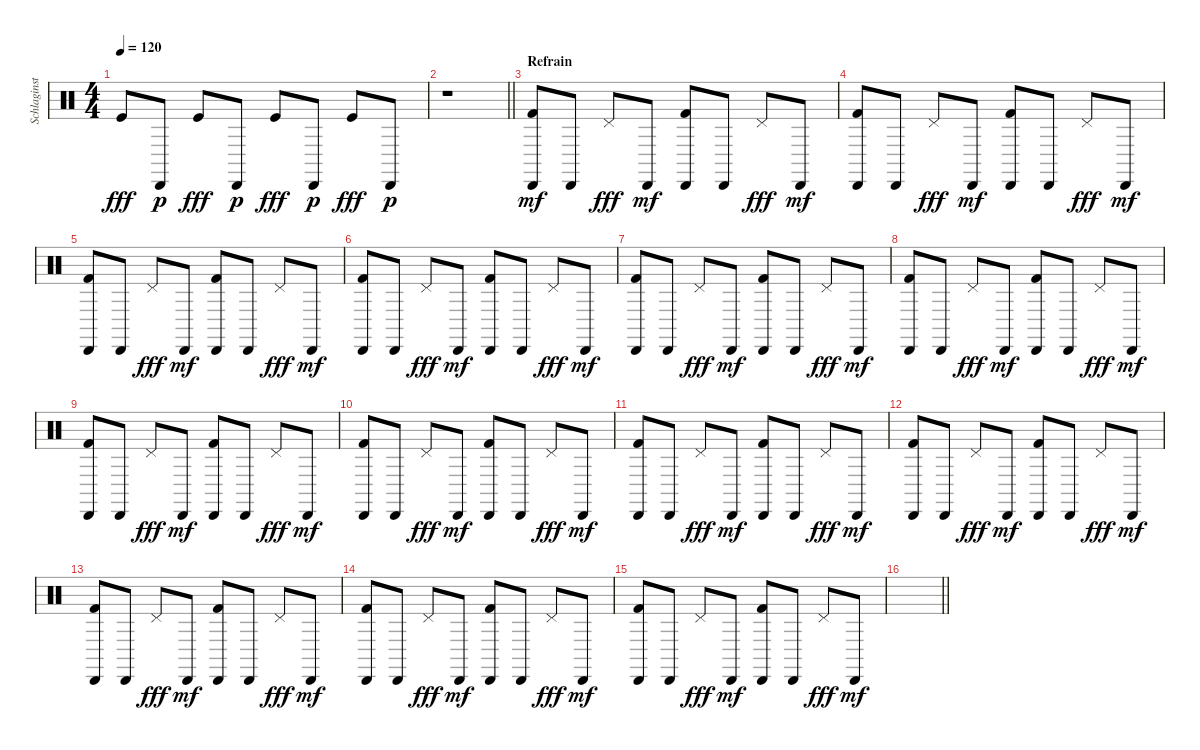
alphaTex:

\track ("Schlaginstrumente - Auswahl" "Schlaginst") {instrument percussion}
\staff {score}
\articulation defaults
\ts (4 4)
\tempo 120
\clef neutral
\ks c "Kick (hit)".8{dy fff} "Cabasa (hit)".8{dy p} "Kick (hit)".8{dy fff} "Cabasa (hit)".8{dy p} "Kick (hit)".8{dy fff} "Cabasa (hit)".8{dy p} "Kick (hit)".8{dy fff} "Cabasa (hit)".8{dy p}
|
\barLineRight lightlight
r.1 |
\section ("" "Refrain")
("Cabasa (hit)" "Kick (hit) 2").8{dy mf} "Cabasa (hit)".8 "Pedal Hi-Hat (hit)".8{dy fff} "Cabasa (hit)".8{dy mf} ("Cabasa (hit)" "Kick (hit) 2").8 "Cabasa (hit)".8 "Pedal Hi-Hat (hit)".8{dy fff} "Cabasa (hit)".8{dy mf} |
("Cabasa (hit)" "Kick (hit) 2").8 "Cabasa (hit)".8 "Pedal Hi-Hat (hit)".8{dy fff} "Cabasa (hit)".8{dy mf} ("Cabasa (hit)" "Kick (hit) 2").8 "Cabasa (hit)".8 "Pedal Hi-Hat (hit)".8{dy fff} "Cabasa (hit)".8{dy mf} |
("Cabasa (hit)" "Kick (hit) 2").8 "Cabasa (hit)".8 "Pedal Hi-Hat (hit)".8{dy fff} "Cabasa (hit)".8{dy mf} ("Cabasa (hit)" "Kick (hit) 2").8 "Cabasa (hit)".8 "Pedal Hi-Hat (hit)".8{dy fff} "Cabasa (hit)".8{dy mf} |
("Cabasa (hit)" "Kick (hit) 2").8 "Cabasa (hit)".8 "Pedal Hi-Hat (hit)".8{dy fff} "Cabasa (hit)".8{dy mf} ("Cabasa (hit)" "Kick (hit) 2").8 "Cabasa (hit)".8 "Pedal Hi-Hat (hit)".8{dy fff} "Cabasa (hit)".8{dy mf} |
("Cabasa (hit)" "Kick (hit) 2").8 "Cabasa (hit)".8 "Pedal Hi-Hat (hit)".8{dy fff} "Cabasa (hit)".8{dy mf} ("Cabasa (hit)" "Kick (hit) 2").8 "Cabasa (hit)".8 "Pedal Hi-Hat (hit)".8{dy fff} "Cabasa (hit)".8{dy mf} |
("Cabasa (hit)" "Kick (hit) 2").8 "Cabasa (hit)".8 "Pedal Hi-Hat (hit)".8{dy fff} "Cabasa (hit)".8{dy mf} ("Cabasa (hit)" "Kick (hit) 2").8 "Cabasa (hit)".8 "Pedal Hi-Hat (hit)".8{dy fff} "Cabasa (hit)".8{dy mf} |
("Cabasa (hit)" "Kick (hit) 2").8 "Cabasa (hit)".8 "Pedal Hi-Hat (hit)".8{dy fff} "Cabasa (hit)".8{dy mf} ("Cabasa (hit)" "Kick (hit) 2").8 "Cabasa (hit)".8 "Pedal Hi-Hat (hit)".8{dy fff} "Cabasa (hit)".8{dy mf} |
("Cabasa (hit)" "Kick (hit) 2").8 "Cabasa (hit)".8 "Pedal Hi-Hat (hit)".8{dy fff} "Cabasa (hit)".8{dy mf} ("Cabasa (hit)" "Kick (hit) 2").8 "Cabasa (hit)".8 "Pedal Hi-Hat (hit)".8{dy fff} "Cabasa (hit)".8{dy mf} |
("Cabasa (hit)" "Kick (hit) 2").8 "Cabasa (hit)".8 "Pedal Hi-Hat (hit)".8{dy fff} "Cabasa (hit)".8{dy mf} ("Cabasa (hit)" "Kick (hit) 2").8 "Cabasa (hit)".8 "Pedal Hi-Hat (hit)".8{dy fff} "Cabasa (hit)".8{dy mf} |
("Cabasa (hit)" "Kick (hit) 2").8 "Cabasa (hit)".8 "Pedal Hi-Hat (hit)".8{dy fff} "Cabasa (hit)".8{dy mf} ("Cabasa (hit)" "Kick (hit) 2").8 "Cabasa (hit)".8 "Pedal Hi-Hat (hit)".8{dy fff} "Cabasa (hit)".8{dy mf} |
("Cabasa (hit)" "Kick (hit) 2").8 "Cabasa (hit)".8 "Pedal Hi-Hat (hit)".8{dy fff} "Cabasa (hit)".8{dy mf} ("Cabasa (hit)" "Kick (hit) 2").8 "Cabasa (hit)".8 "Pedal Hi-Hat (hit)".8{dy fff} "Cabasa (hit)".8{dy mf} |
("Cabasa (hit)" "Kick (hit) 2").8 "Cabasa (hit)".8 "Pedal Hi-Hat (hit)".8{dy fff} "Cabasa (hit)".8{dy mf} ("Cabasa (hit)" "Kick (hit) 2").8 "Cabasa (hit)".8 "Pedal Hi-Hat (hit)".8{dy fff} "Cabasa (hit)".8{dy mf} |
("Cabasa (hit)" "Kick (hit) 2").8 "Cabasa (hit)".8 "Pedal Hi-Hat (hit)".8{dy fff} "Cabasa (hit)".8{dy mf} ("Cabasa (hit)" "Kick (hit) 2").8 "Cabasa (hit)".8 "Pedal Hi-Hat (hit)".8{dy fff} "Cabasa (hit)".8{dy mf} |
\barLineRight lightlight
